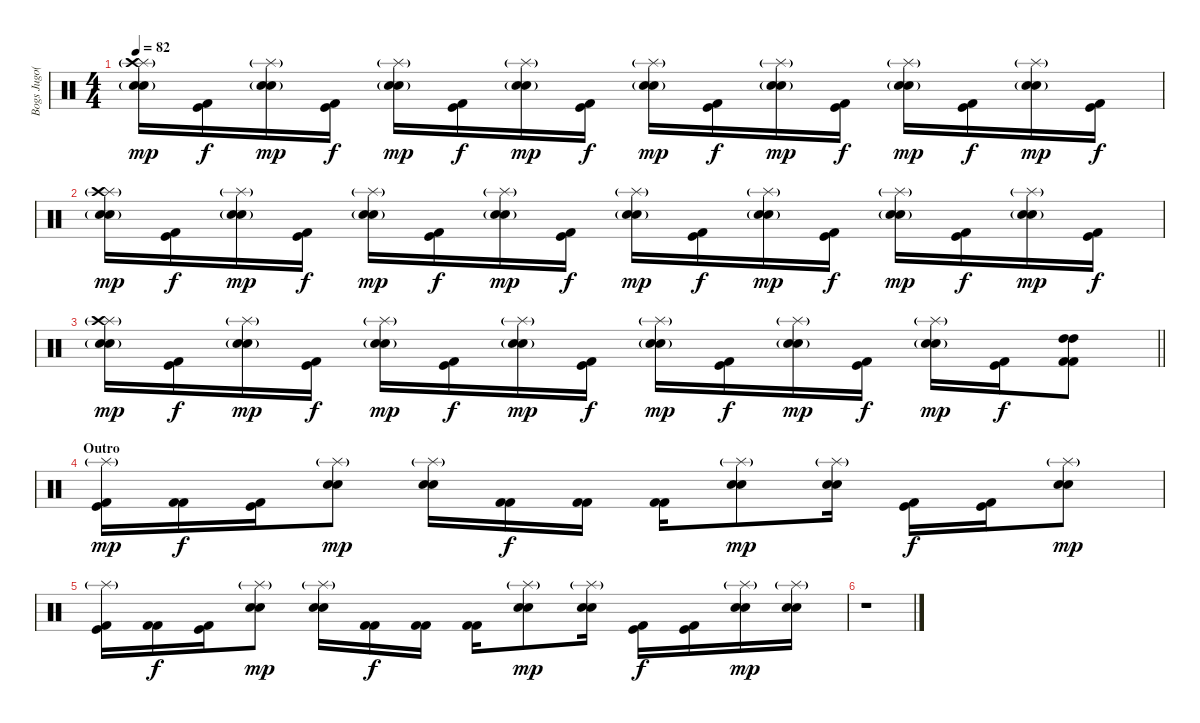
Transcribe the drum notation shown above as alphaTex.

\track ("Bogs Jugo(Drums)" "Bogs Jugo(") {instrument percussion}
\staff {score}
\articulation defaults
\ts (4 4)
\tempo 82
\clef neutral
\ks c
("Electric Snare (hit)" "Snare (hit) 2"{g} "Splash (hit)"{g} "Crash high (hit)"{g}).16{dy mp} ("Kick (hit) 2" "Kick (hit)").16{dy f} ("Electric Snare (hit)" "Snare (hit) 2"{g} "Splash (hit)"{g}).16{dy mp} ("Kick (hit) 2" "Kick (hit)").16{dy f} ("Electric Snare (hit)" "Snare (hit) 2"{g} "Splash (hit)"{g}).16{dy mp} ("Kick (hit) 2" "Kick (hit)").16{dy f} ("Electric Snare (hit)" "Snare (hit) 2"{g} "Splash (hit)"{g}).16{dy mp} ("Kick (hit) 2" "Kick (hit)").16{dy f} ("Electric Snare (hit)" "Snare (hit) 2"{g} "Splash (hit)"{g}).16{dy mp} ("Kick (hit) 2" "Kick (hit)").16{dy f} ("Electric Snare (hit)" "Snare (hit) 2"{g} "Splash (hit)"{g}).16{dy mp} ("Kick (hit) 2" "Kick (hit)").16{dy f} ("Electric Snare (hit)" "Snare (hit) 2"{g} "Splash (hit)"{g}).16{dy mp} ("Kick (hit) 2" "Kick (hit)").16{dy f} ("Electric Snare (hit)" "Snare (hit) 2"{g} "Splash (hit)"{g}).16{dy mp} ("Kick (hit) 2" "Kick (hit)").16{dy f} |
("Electric Snare (hit)" "Snare (hit) 2"{g} "Splash (hit)"{g} "Crash high (hit)"{g}).16{dy mp} ("Kick (hit) 2" "Kick (hit)").16{dy f} ("Electric Snare (hit)" "Snare (hit) 2"{g} "Splash (hit)"{g}).16{dy mp} ("Kick (hit) 2" "Kick (hit)").16{dy f} ("Electric Snare (hit)" "Snare (hit) 2"{g} "Splash (hit)"{g}).16{dy mp} ("Kick (hit) 2" "Kick (hit)").16{dy f} ("Electric Snare (hit)" "Snare (hit) 2"{g} "Splash (hit)"{g}).16{dy mp} ("Kick (hit) 2" "Kick (hit)").16{dy f} ("Electric Snare (hit)" "Snare (hit) 2"{g} "Splash (hit)"{g}).16{dy mp} ("Kick (hit) 2" "Kick (hit)").16{dy f} ("Electric Snare (hit)" "Snare (hit) 2"{g} "Splash (hit)"{g}).16{dy mp} ("Kick (hit) 2" "Kick (hit)").16{dy f} ("Electric Snare (hit)" "Snare (hit) 2"{g} "Splash (hit)"{g}).16{dy mp} ("Kick (hit) 2" "Kick (hit)").16{dy f} ("Electric Snare (hit)" "Snare (hit) 2"{g} "Splash (hit)"{g}).16{dy mp} ("Kick (hit) 2" "Kick (hit)").16{dy f} |
\barLineRight lightlight
("Electric Snare (hit)" "Snare (hit) 2"{g} "Splash (hit)"{g} "Crash high (hit)"{g}).16{dy mp} ("Kick (hit) 2" "Kick (hit)").16{dy f} ("Electric Snare (hit)" "Snare (hit) 2"{g} "Splash (hit)"{g}).16{dy mp} ("Kick (hit) 2" "Kick (hit)").16{dy f} ("Electric Snare (hit)" "Snare (hit) 2"{g} "Splash (hit)"{g}).16{dy mp} ("Kick (hit) 2" "Kick (hit)").16{dy f} ("Electric Snare (hit)" "Snare (hit) 2"{g} "Splash (hit)"{g}).16{dy mp} ("Kick (hit) 2" "Kick (hit)").16{dy f} ("Electric Snare (hit)" "Snare (hit) 2"{g} "Splash (hit)"{g}).16{dy mp} ("Kick (hit) 2" "Kick (hit)").16{dy f} ("Electric Snare (hit)" "Snare (hit) 2"{g} "Splash (hit)"{g}).16{dy mp} ("Kick (hit) 2" "Kick (hit)").16{dy f} ("Electric Snare (hit)" "Snare (hit) 2"{g} "Splash (hit)"{g}).16{dy mp} ("Kick (hit) 2" "Kick (hit)").16{dy f} ("High Tom (hit)" "High Tom (hit)" "Kick (hit) 2" "Kick (hit) 2").8 |
\section ("" "Outro")
("Kick (hit) 2" "Kick (hit)" "Splash (hit)"{g}).16{dy mp} ("Kick (hit) 2" "Kick (hit) 2").16{dy f} ("Kick (hit) 2" "Kick (hit)").16 ("Electric Snare (hit)" "Snare (hit) 2" "Splash (hit)"{g}).8{dy mp} ("Electric Snare (hit)" "Snare (hit) 2" "Splash (hit)"{g}).16 ("Kick (hit) 2" "Kick (hit) 2").16{dy f} ("Kick (hit) 2" "Kick (hit) 2").16 ("Kick (hit) 2" "Kick (hit) 2").16 ("Electric Snare (hit)" "Snare (hit) 2" "Splash (hit)"{g}).8{dy mp} ("Electric Snare (hit)" "Snare (hit) 2" "Splash (hit)"{g}).16 ("Kick (hit) 2" "Kick (hit)").16{dy f} ("Kick (hit) 2" "Kick (hit)").16 ("Electric Snare (hit)" "Snare (hit) 2" "Splash (hit)"{g}).8{dy mp} |
("Kick (hit) 2" "Kick (hit)" "Splash (hit)"{g}).16 ("Kick (hit) 2" "Kick (hit) 2").16{dy f} ("Kick (hit) 2" "Kick (hit)").16 ("Electric Snare (hit)" "Snare (hit) 2" "Splash (hit)"{g}).8{dy mp} ("Electric Snare (hit)" "Snare (hit) 2" "Splash (hit)"{g}).16 ("Kick (hit) 2" "Kick (hit) 2").16{dy f} ("Kick (hit) 2" "Kick (hit) 2").16 ("Kick (hit) 2" "Kick (hit) 2").16 ("Electric Snare (hit)" "Snare (hit) 2" "Splash (hit)"{g}).8{dy mp} ("Electric Snare (hit)" "Snare (hit) 2" "Splash (hit)"{g}).16 ("Kick (hit) 2" "Kick (hit)").16{dy f} ("Kick (hit) 2" "Kick (hit)").16 ("Electric Snare (hit)" "Snare (hit) 2" "Splash (hit)"{g}).16{dy mp} ("Electric Snare (hit)" "Snare (hit) 2" "Splash (hit)"{g}).16 |
r.1
